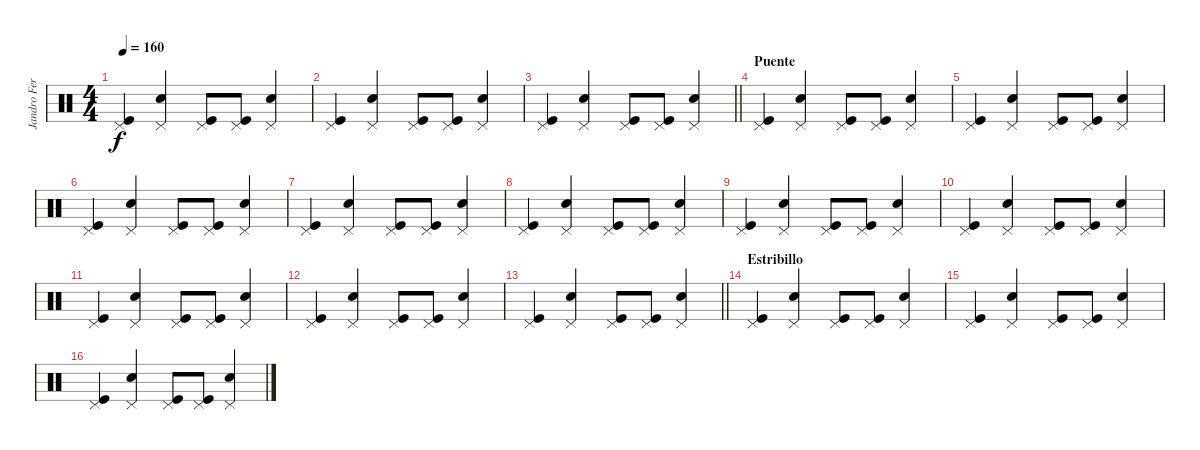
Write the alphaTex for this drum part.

\track ("Jandro Fernández" "Jandro Fer") {instrument percussion}
\staff
\articulation defaults
\ts (4 4)
\tempo 160
\clef neutral
\ks c
("Pedal Hi-Hat (hit)" "Kick (hit)").4{dy f} ("Pedal Hi-Hat (hit)" "Snare (hit) 2").4 ("Pedal Hi-Hat (hit)" "Kick (hit)").8 ("Pedal Hi-Hat (hit)" "Kick (hit)").8 ("Pedal Hi-Hat (hit)" "Snare (hit) 2").4 |
("Pedal Hi-Hat (hit)" "Kick (hit)").4 ("Pedal Hi-Hat (hit)" "Snare (hit) 2").4 ("Pedal Hi-Hat (hit)" "Kick (hit)").8 ("Pedal Hi-Hat (hit)" "Kick (hit)").8 ("Pedal Hi-Hat (hit)" "Snare (hit) 2").4 |
\barLineRight lightlight
("Pedal Hi-Hat (hit)" "Kick (hit)").4 ("Pedal Hi-Hat (hit)" "Snare (hit) 2").4 ("Pedal Hi-Hat (hit)" "Kick (hit)").8 ("Pedal Hi-Hat (hit)" "Kick (hit)").8 ("Pedal Hi-Hat (hit)" "Snare (hit) 2").4 |
\section ("" "Puente")
("Pedal Hi-Hat (hit)" "Kick (hit)").4 ("Pedal Hi-Hat (hit)" "Snare (hit) 2").4 ("Pedal Hi-Hat (hit)" "Kick (hit)").8 ("Pedal Hi-Hat (hit)" "Kick (hit)").8 ("Pedal Hi-Hat (hit)" "Snare (hit) 2").4 |
("Pedal Hi-Hat (hit)" "Kick (hit)").4 ("Pedal Hi-Hat (hit)" "Snare (hit) 2").4 ("Pedal Hi-Hat (hit)" "Kick (hit)").8 ("Pedal Hi-Hat (hit)" "Kick (hit)").8 ("Pedal Hi-Hat (hit)" "Snare (hit) 2").4 |
("Pedal Hi-Hat (hit)" "Kick (hit)").4 ("Pedal Hi-Hat (hit)" "Snare (hit) 2").4 ("Pedal Hi-Hat (hit)" "Kick (hit)").8 ("Pedal Hi-Hat (hit)" "Kick (hit)").8 ("Pedal Hi-Hat (hit)" "Snare (hit) 2").4 |
("Pedal Hi-Hat (hit)" "Kick (hit)").4 ("Pedal Hi-Hat (hit)" "Snare (hit) 2").4 ("Pedal Hi-Hat (hit)" "Kick (hit)").8 ("Pedal Hi-Hat (hit)" "Kick (hit)").8 ("Pedal Hi-Hat (hit)" "Snare (hit) 2").4 |
("Pedal Hi-Hat (hit)" "Kick (hit)").4 ("Pedal Hi-Hat (hit)" "Snare (hit) 2").4 ("Pedal Hi-Hat (hit)" "Kick (hit)").8 ("Pedal Hi-Hat (hit)" "Kick (hit)").8 ("Pedal Hi-Hat (hit)" "Snare (hit) 2").4 |
("Pedal Hi-Hat (hit)" "Kick (hit)").4 ("Pedal Hi-Hat (hit)" "Snare (hit) 2").4 ("Pedal Hi-Hat (hit)" "Kick (hit)").8 ("Pedal Hi-Hat (hit)" "Kick (hit)").8 ("Pedal Hi-Hat (hit)" "Snare (hit) 2").4 |
("Pedal Hi-Hat (hit)" "Kick (hit)").4 ("Pedal Hi-Hat (hit)" "Snare (hit) 2").4 ("Pedal Hi-Hat (hit)" "Kick (hit)").8 ("Pedal Hi-Hat (hit)" "Kick (hit)").8 ("Pedal Hi-Hat (hit)" "Snare (hit) 2").4 |
("Pedal Hi-Hat (hit)" "Kick (hit)").4 ("Pedal Hi-Hat (hit)" "Snare (hit) 2").4 ("Pedal Hi-Hat (hit)" "Kick (hit)").8 ("Pedal Hi-Hat (hit)" "Kick (hit)").8 ("Pedal Hi-Hat (hit)" "Snare (hit) 2").4 |
("Pedal Hi-Hat (hit)" "Kick (hit)").4 ("Pedal Hi-Hat (hit)" "Snare (hit) 2").4 ("Pedal Hi-Hat (hit)" "Kick (hit)").8 ("Pedal Hi-Hat (hit)" "Kick (hit)").8 ("Pedal Hi-Hat (hit)" "Snare (hit) 2").4 |
\barLineRight lightlight
("Pedal Hi-Hat (hit)" "Kick (hit)").4 ("Pedal Hi-Hat (hit)" "Snare (hit) 2").4 ("Pedal Hi-Hat (hit)" "Kick (hit)").8 ("Pedal Hi-Hat (hit)" "Kick (hit)").8 ("Pedal Hi-Hat (hit)" "Snare (hit) 2").4 |
\section ("" "Estribillo")
("Pedal Hi-Hat (hit)" "Kick (hit)").4 ("Pedal Hi-Hat (hit)" "Snare (hit) 2").4 ("Pedal Hi-Hat (hit)" "Kick (hit)").8 ("Pedal Hi-Hat (hit)" "Kick (hit)").8 ("Pedal Hi-Hat (hit)" "Snare (hit) 2").4 |
("Pedal Hi-Hat (hit)" "Kick (hit)").4 ("Pedal Hi-Hat (hit)" "Snare (hit) 2").4 ("Pedal Hi-Hat (hit)" "Kick (hit)").8 ("Pedal Hi-Hat (hit)" "Kick (hit)").8 ("Pedal Hi-Hat (hit)" "Snare (hit) 2").4 |
("Pedal Hi-Hat (hit)" "Kick (hit)").4 ("Pedal Hi-Hat (hit)" "Snare (hit) 2").4 ("Pedal Hi-Hat (hit)" "Kick (hit)").8 ("Pedal Hi-Hat (hit)" "Kick (hit)").8 ("Pedal Hi-Hat (hit)" "Snare (hit) 2").4
